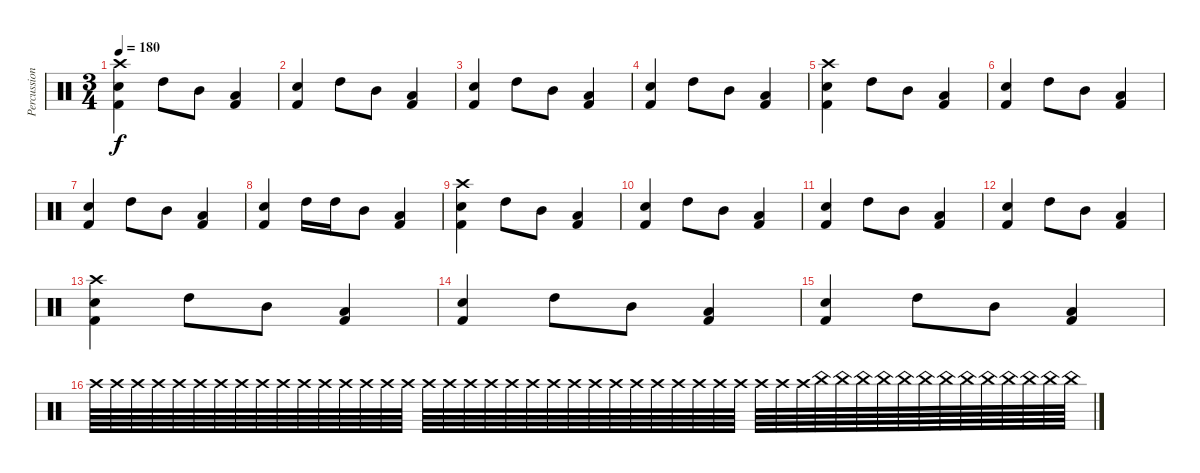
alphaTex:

\track ("Percussion" "Percussion") {instrument percussion}
\staff {score}
\articulation defaults
\ts (3 4)
\tempo 180
\clef neutral
\ks c
("Crash high (hit)" "Snare (hit) 2" "Kick (hit) 2").4{dy f} "High Tom (hit)".8 "Mid Tom (hit)".8 ("Low Tom (hit)" "Kick (hit) 2").4 |
("Snare (hit) 2" "Kick (hit) 2").4 "High Tom (hit)".8 "Mid Tom (hit)".8 ("Low Tom (hit)" "Kick (hit) 2").4 |
("Snare (hit) 2" "Kick (hit) 2").4 "High Tom (hit)".8 "Mid Tom (hit)".8 ("Low Tom (hit)" "Kick (hit) 2").4 |
("Snare (hit) 2" "Kick (hit) 2").4 "High Tom (hit)".8 "Mid Tom (hit)".8 ("Low Tom (hit)" "Kick (hit) 2").4 |
("Crash high (hit)" "Snare (hit) 2" "Kick (hit) 2").4 "High Tom (hit)".8 "Mid Tom (hit)".8 ("Low Tom (hit)" "Kick (hit) 2").4 |
("Snare (hit) 2" "Kick (hit) 2").4 "High Tom (hit)".8 "Mid Tom (hit)".8 ("Low Tom (hit)" "Kick (hit) 2").4 |
("Snare (hit) 2" "Kick (hit) 2").4 "High Tom (hit)".8 "Mid Tom (hit)".8 ("Low Tom (hit)" "Kick (hit) 2").4 |
("Snare (hit) 2" "Kick (hit) 2").4 "High Tom (hit)".16 "High Tom (hit)".16 "Mid Tom (hit)".8 ("Low Tom (hit)" "Kick (hit) 2").4 |
("Crash high (hit)" "Snare (hit) 2" "Kick (hit) 2").4 "High Tom (hit)".8 "Mid Tom (hit)".8 ("Low Tom (hit)" "Kick (hit) 2").4 |
("Snare (hit) 2" "Kick (hit) 2").4 "High Tom (hit)".8 "Mid Tom (hit)".8 ("Low Tom (hit)" "Kick (hit) 2").4 |
("Snare (hit) 2" "Kick (hit) 2").4 "High Tom (hit)".8 "Mid Tom (hit)".8 ("Low Tom (hit)" "Kick (hit) 2").4 |
("Snare (hit) 2" "Kick (hit) 2").4 "High Tom (hit)".8 "Mid Tom (hit)".8 ("Low Tom (hit)" "Kick (hit) 2").4 |
("Crash high (hit)" "Snare (hit) 2" "Kick (hit) 2").4 "High Tom (hit)".8 "Mid Tom (hit)".8 ("Low Tom (hit)" "Kick (hit) 2").4 |
("Snare (hit) 2" "Kick (hit) 2").4 "High Tom (hit)".8 "Mid Tom (hit)".8 ("Low Tom (hit)" "Kick (hit) 2").4 |
("Snare (hit) 2" "Kick (hit) 2").4 "High Tom (hit)".8 "Mid Tom (hit)".8 ("Low Tom (hit)" "Kick (hit) 2").4 |
"Crash high (hit)".64 "Crash high (hit)".64 "Crash high (hit)".64 "Crash high (hit)".64 "Crash high (hit)".64 "Crash high (hit)".64 "Crash high (hit)".64 "Crash high (hit)".64 "Crash high (hit)".64 "Crash high (hit)".64 "Crash high (hit)".64 "Crash high (hit)".64 "Crash high (hit)".64 "Crash high (hit)".64 "Crash high (hit)".64 "Crash high (hit)".64 "Crash high (hit)".64 "Crash high (hit)".64 "Crash high (hit)".64 "Crash high (hit)".64 "Crash high (hit)".64 "Crash high (hit)".64 "Crash high (hit)".64 "Crash high (hit)".64 "Crash high (hit)".64 "Crash high (hit)".64 "Crash high (hit)".64 "Crash high (hit)".64 "Crash high (hit)".64 "Crash high (hit)".64 "Crash high (hit)".64 "Crash high (hit)".64 "Crash high (hit)".64 "Crash high (hit)".64 "Crash high (hit)".64 "China (hit)".64 "China (hit)".64 "China (hit)".64 "China (hit)".64 "China (hit)".64 "China (hit)".64 "China (hit)".64 "China (hit)".64 "China (hit)".64 "China (hit)".64 "China (hit)".64 "China (hit)".64 "China (hit)".64
